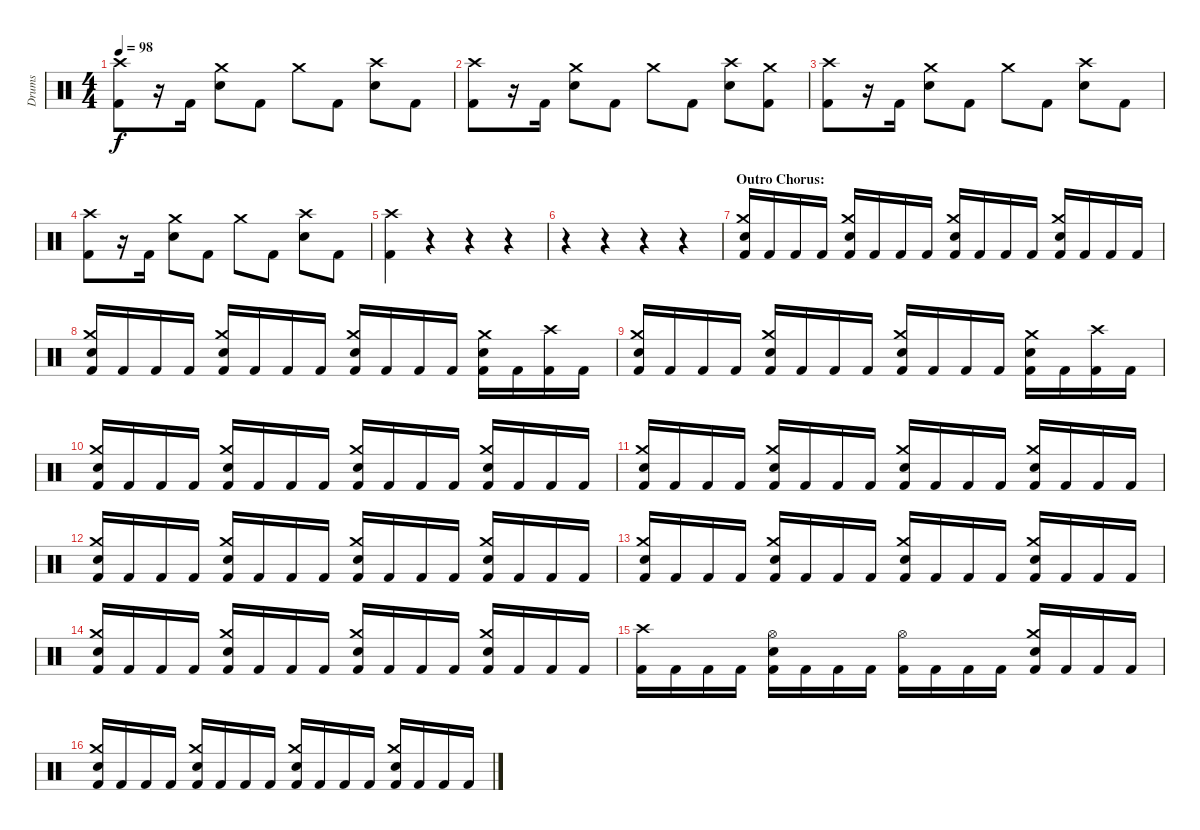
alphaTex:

\track ("Drums" "Drums") {instrument percussion}
\staff {score}
\articulation defaults
\ts (4 4)
\tempo 98
\clef neutral
\ks c
("Crash high (hit)" "Kick (hit) 2").8{dy f} r.16 "Kick (hit) 2".16 ("Crash medium (hit)" "Electric Snare (hit)").8 "Kick (hit) 2".8 "Crash medium (hit)".8 "Kick (hit) 2".8 ("Crash high (hit)" "Electric Snare (hit)").8 "Kick (hit) 2".8 |
("Crash high (hit)" "Kick (hit) 2").8 r.16 "Kick (hit) 2".16 ("Crash medium (hit)" "Electric Snare (hit)").8 "Kick (hit) 2".8 "Crash medium (hit)".8 "Kick (hit) 2".8 ("Crash high (hit)" "Electric Snare (hit)").8 ("Crash medium (hit)" "Kick (hit) 2").8 |
("Crash high (hit)" "Kick (hit) 2").8 r.16 "Kick (hit) 2".16 ("Crash medium (hit)" "Electric Snare (hit)").8 "Kick (hit) 2".8 "Crash medium (hit)".8 "Kick (hit) 2".8 ("Crash high (hit)" "Electric Snare (hit)").8 "Kick (hit) 2".8 |
("Crash high (hit)" "Kick (hit) 2").8 r.16 "Kick (hit) 2".16 ("Crash medium (hit)" "Electric Snare (hit)").8 "Kick (hit) 2".8 "Crash medium (hit)".8 "Kick (hit) 2".8 ("Crash high (hit)" "Electric Snare (hit)").8 "Kick (hit) 2".8 |
("Crash high (hit)" "Kick (hit) 2").4 r.4 r.4 r.4 |
r.4 r.4 r.4 r.4 |
\section ("" "Outro Chorus:")
("Crash medium (hit)" "Electric Snare (hit)" "Kick (hit) 2").16 "Kick (hit) 2".16 "Kick (hit) 2".16 "Kick (hit) 2".16 ("Crash medium (hit)" "Electric Snare (hit)" "Kick (hit) 2").16 "Kick (hit) 2".16 "Kick (hit) 2".16 "Kick (hit) 2".16 ("Crash medium (hit)" "Electric Snare (hit)" "Kick (hit) 2").16 "Kick (hit) 2".16 "Kick (hit) 2".16 "Kick (hit) 2".16 ("Crash medium (hit)" "Electric Snare (hit)" "Kick (hit) 2").16 "Kick (hit) 2".16 "Kick (hit) 2".16 "Kick (hit) 2".16 |
("Crash medium (hit)" "Electric Snare (hit)" "Kick (hit) 2").16 "Kick (hit) 2".16 "Kick (hit) 2".16 "Kick (hit) 2".16 ("Crash medium (hit)" "Electric Snare (hit)" "Kick (hit) 2").16 "Kick (hit) 2".16 "Kick (hit) 2".16 "Kick (hit) 2".16 ("Crash medium (hit)" "Electric Snare (hit)" "Kick (hit) 2").16 "Kick (hit) 2".16 "Kick (hit) 2".16 "Kick (hit) 2".16 ("Crash medium (hit)" "Electric Snare (hit)" "Kick (hit) 2").16 "Kick (hit) 2".16 ("Crash high (hit)" "Kick (hit) 2").16 "Kick (hit) 2".16 |
("Crash medium (hit)" "Electric Snare (hit)" "Kick (hit) 2").16 "Kick (hit) 2".16 "Kick (hit) 2".16 "Kick (hit) 2".16 ("Crash medium (hit)" "Electric Snare (hit)" "Kick (hit) 2").16 "Kick (hit) 2".16 "Kick (hit) 2".16 "Kick (hit) 2".16 ("Crash medium (hit)" "Electric Snare (hit)" "Kick (hit) 2").16 "Kick (hit) 2".16 "Kick (hit) 2".16 "Kick (hit) 2".16 ("Crash medium (hit)" "Electric Snare (hit)" "Kick (hit) 2").16 "Kick (hit) 2".16 ("Crash high (hit)" "Kick (hit) 2").16 "Kick (hit) 2".16 |
("Crash medium (hit)" "Electric Snare (hit)" "Kick (hit) 2").16 "Kick (hit) 2".16 "Kick (hit) 2".16 "Kick (hit) 2".16 ("Crash medium (hit)" "Electric Snare (hit)" "Kick (hit) 2").16 "Kick (hit) 2".16 "Kick (hit) 2".16 "Kick (hit) 2".16 ("Crash medium (hit)" "Electric Snare (hit)" "Kick (hit) 2").16 "Kick (hit) 2".16 "Kick (hit) 2".16 "Kick (hit) 2".16 ("Crash medium (hit)" "Electric Snare (hit)" "Kick (hit) 2").16 "Kick (hit) 2".16 "Kick (hit) 2".16 "Kick (hit) 2".16 |
("Crash medium (hit)" "Electric Snare (hit)" "Kick (hit) 2").16 "Kick (hit) 2".16 "Kick (hit) 2".16 "Kick (hit) 2".16 ("Crash medium (hit)" "Electric Snare (hit)" "Kick (hit) 2").16 "Kick (hit) 2".16 "Kick (hit) 2".16 "Kick (hit) 2".16 ("Crash medium (hit)" "Electric Snare (hit)" "Kick (hit) 2").16 "Kick (hit) 2".16 "Kick (hit) 2".16 "Kick (hit) 2".16 ("Crash medium (hit)" "Electric Snare (hit)" "Kick (hit) 2").16 "Kick (hit) 2".16 "Kick (hit) 2".16 "Kick (hit) 2".16 |
("Crash medium (hit)" "Electric Snare (hit)" "Kick (hit) 2").16 "Kick (hit) 2".16 "Kick (hit) 2".16 "Kick (hit) 2".16 ("Crash medium (hit)" "Electric Snare (hit)" "Kick (hit) 2").16 "Kick (hit) 2".16 "Kick (hit) 2".16 "Kick (hit) 2".16 ("Crash medium (hit)" "Electric Snare (hit)" "Kick (hit) 2").16 "Kick (hit) 2".16 "Kick (hit) 2".16 "Kick (hit) 2".16 ("Crash medium (hit)" "Electric Snare (hit)" "Kick (hit) 2").16 "Kick (hit) 2".16 "Kick (hit) 2".16 "Kick (hit) 2".16 |
("Crash medium (hit)" "Electric Snare (hit)" "Kick (hit) 2").16 "Kick (hit) 2".16 "Kick (hit) 2".16 "Kick (hit) 2".16 ("Crash medium (hit)" "Electric Snare (hit)" "Kick (hit) 2").16 "Kick (hit) 2".16 "Kick (hit) 2".16 "Kick (hit) 2".16 ("Crash medium (hit)" "Electric Snare (hit)" "Kick (hit) 2").16 "Kick (hit) 2".16 "Kick (hit) 2".16 "Kick (hit) 2".16 ("Crash medium (hit)" "Electric Snare (hit)" "Kick (hit) 2").16 "Kick (hit) 2".16 "Kick (hit) 2".16 "Kick (hit) 2".16 |
("Crash medium (hit)" "Electric Snare (hit)" "Kick (hit) 2").16 "Kick (hit) 2".16 "Kick (hit) 2".16 "Kick (hit) 2".16 ("Crash medium (hit)" "Electric Snare (hit)" "Kick (hit) 2").16 "Kick (hit) 2".16 "Kick (hit) 2".16 "Kick (hit) 2".16 ("Crash medium (hit)" "Electric Snare (hit)" "Kick (hit) 2").16 "Kick (hit) 2".16 "Kick (hit) 2".16 "Kick (hit) 2".16 ("Crash medium (hit)" "Electric Snare (hit)" "Kick (hit) 2").16 "Kick (hit) 2".16 "Kick (hit) 2".16 "Kick (hit) 2".16 |
("Crash high (hit)" "Kick (hit) 2").16 "Kick (hit) 2".16 "Kick (hit) 2".16 "Kick (hit) 2".16 ("Hi-Hat (open)" "Electric Snare (hit)" "Kick (hit) 2").16 "Kick (hit) 2".16 "Kick (hit) 2".16 "Kick (hit) 2".16 ("Hi-Hat (open)" "Kick (hit) 2").16 "Kick (hit) 2".16 "Kick (hit) 2".16 "Kick (hit) 2".16 ("Crash medium (hit)" "Electric Snare (hit)" "Kick (hit) 2").16 "Kick (hit) 2".16 "Kick (hit) 2".16 "Kick (hit) 2".16 |
("Crash medium (hit)" "Electric Snare (hit)" "Kick (hit) 2").16 "Kick (hit) 2".16 "Kick (hit) 2".16 "Kick (hit) 2".16 ("Crash medium (hit)" "Electric Snare (hit)" "Kick (hit) 2").16 "Kick (hit) 2".16 "Kick (hit) 2".16 "Kick (hit) 2".16 ("Crash medium (hit)" "Electric Snare (hit)" "Kick (hit) 2").16 "Kick (hit) 2".16 "Kick (hit) 2".16 "Kick (hit) 2".16 ("Crash medium (hit)" "Electric Snare (hit)" "Kick (hit) 2").16 "Kick (hit) 2".16 "Kick (hit) 2".16 "Kick (hit) 2".16
